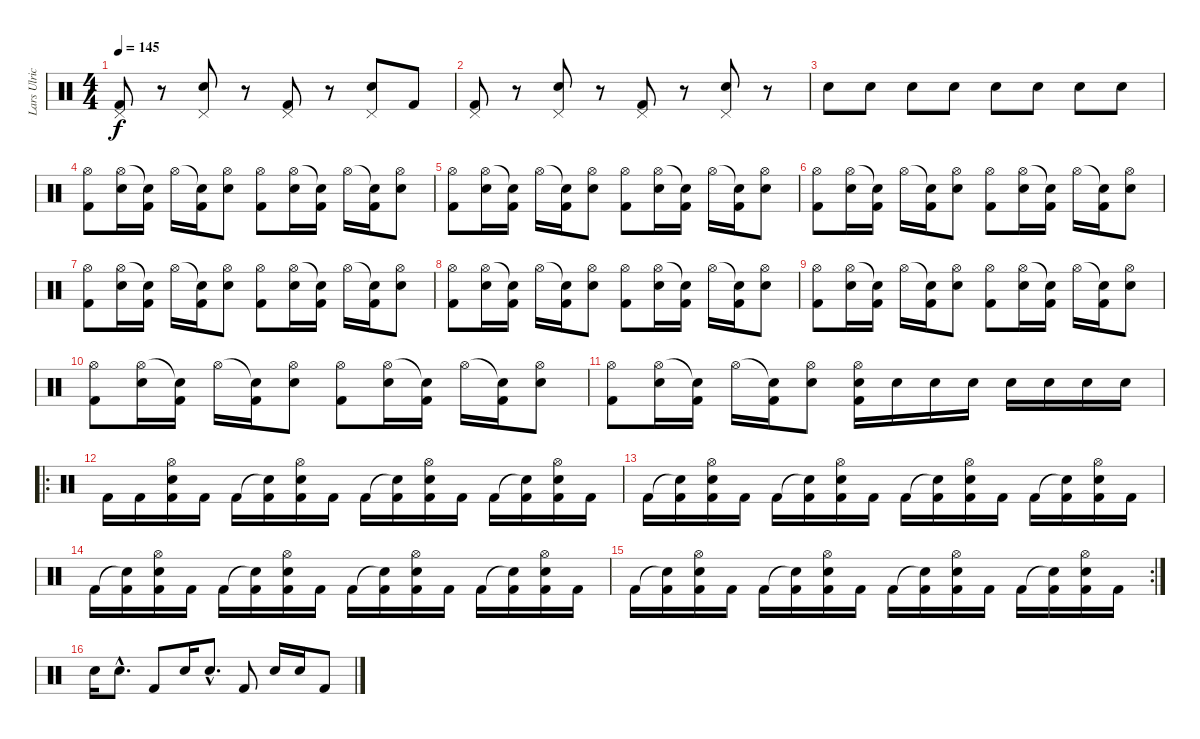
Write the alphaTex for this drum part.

\track ("Lars Ulrich" "Lars Ulric") {instrument percussion}
\staff {score}
\articulation defaults
\ts (4 4)
\tempo 145
\clef neutral
\ks c
("Pedal Hi-Hat (hit)" "Kick (hit) 2").8{dy f} r.8 ("Pedal Hi-Hat (hit)" "Electric Snare (hit)").8 r.8 ("Pedal Hi-Hat (hit)" "Kick (hit) 2").8 r.8 ("Pedal Hi-Hat (hit)" "Electric Snare (hit)").8 "Kick (hit) 2".8 |
("Pedal Hi-Hat (hit)" "Kick (hit) 2").8 r.8 ("Pedal Hi-Hat (hit)" "Electric Snare (hit)").8 r.8 ("Pedal Hi-Hat (hit)" "Kick (hit) 2").8 r.8 ("Pedal Hi-Hat (hit)" "Electric Snare (hit)").8 r.8 |
"Electric Snare (hit)".8 "Electric Snare (hit)".8 "Electric Snare (hit)".8 "Electric Snare (hit)".8 "Electric Snare (hit)".8 "Electric Snare (hit)".8 "Electric Snare (hit)".8 "Electric Snare (hit)".8 |
("Hi-Hat (open)" "Kick (hit) 2").8 ("Hi-Hat (open)" "Electric Snare (hit)").16 ("Snare (hit)"{t} "Kick (hit) 2").16 "Hi-Hat (open)".16 ("Snare (hit)"{t} "Kick (hit) 2").16 ("Hi-Hat (open)" "Electric Snare (hit)").8 ("Hi-Hat (open)" "Kick (hit) 2").8 ("Hi-Hat (open)" "Electric Snare (hit)").16 ("Snare (hit)"{t} "Kick (hit) 2").16 "Hi-Hat (open)".16 ("Snare (hit)"{t} "Kick (hit) 2").16 ("Hi-Hat (open)" "Electric Snare (hit)").8 |
("Hi-Hat (open)" "Kick (hit) 2").8 ("Hi-Hat (open)" "Electric Snare (hit)").16 ("Snare (hit)"{t} "Kick (hit) 2").16 "Hi-Hat (open)".16 ("Snare (hit)"{t} "Kick (hit) 2").16 ("Hi-Hat (open)" "Electric Snare (hit)").8 ("Hi-Hat (open)" "Kick (hit) 2").8 ("Hi-Hat (open)" "Electric Snare (hit)").16 ("Snare (hit)"{t} "Kick (hit) 2").16 "Hi-Hat (open)".16 ("Snare (hit)"{t} "Kick (hit) 2").16 ("Hi-Hat (open)" "Electric Snare (hit)").8 |
("Hi-Hat (open)" "Kick (hit) 2").8 ("Hi-Hat (open)" "Electric Snare (hit)").16 ("Snare (hit)"{t} "Kick (hit) 2").16 "Hi-Hat (open)".16 ("Snare (hit)"{t} "Kick (hit) 2").16 ("Hi-Hat (open)" "Electric Snare (hit)").8 ("Hi-Hat (open)" "Kick (hit) 2").8 ("Hi-Hat (open)" "Electric Snare (hit)").16 ("Snare (hit)"{t} "Kick (hit) 2").16 "Hi-Hat (open)".16 ("Snare (hit)"{t} "Kick (hit) 2").16 ("Hi-Hat (open)" "Electric Snare (hit)").8 |
("Hi-Hat (open)" "Kick (hit) 2").8 ("Hi-Hat (open)" "Electric Snare (hit)").16 ("Snare (hit)"{t} "Kick (hit) 2").16 "Hi-Hat (open)".16 ("Snare (hit)"{t} "Kick (hit) 2").16 ("Hi-Hat (open)" "Electric Snare (hit)").8 ("Hi-Hat (open)" "Kick (hit) 2").8 ("Hi-Hat (open)" "Electric Snare (hit)").16 ("Snare (hit)"{t} "Kick (hit) 2").16 "Hi-Hat (open)".16 ("Snare (hit)"{t} "Kick (hit) 2").16 ("Hi-Hat (open)" "Electric Snare (hit)").8 |
("Hi-Hat (open)" "Kick (hit) 2").8 ("Hi-Hat (open)" "Electric Snare (hit)").16 ("Snare (hit)"{t} "Kick (hit) 2").16 "Hi-Hat (open)".16 ("Snare (hit)"{t} "Kick (hit) 2").16 ("Hi-Hat (open)" "Electric Snare (hit)").8 ("Hi-Hat (open)" "Kick (hit) 2").8 ("Hi-Hat (open)" "Electric Snare (hit)").16 ("Snare (hit)"{t} "Kick (hit) 2").16 "Hi-Hat (open)".16 ("Snare (hit)"{t} "Kick (hit) 2").16 ("Hi-Hat (open)" "Electric Snare (hit)").8 |
("Hi-Hat (open)" "Kick (hit) 2").8 ("Hi-Hat (open)" "Electric Snare (hit)").16 ("Snare (hit)"{t} "Kick (hit) 2").16 "Hi-Hat (open)".16 ("Snare (hit)"{t} "Kick (hit) 2").16 ("Hi-Hat (open)" "Electric Snare (hit)").8 ("Hi-Hat (open)" "Kick (hit) 2").8 ("Hi-Hat (open)" "Electric Snare (hit)").16 ("Snare (hit)"{t} "Kick (hit) 2").16 "Hi-Hat (open)".16 ("Snare (hit)"{t} "Kick (hit) 2").16 ("Hi-Hat (open)" "Electric Snare (hit)").8 |
("Hi-Hat (open)" "Kick (hit) 2").8 ("Hi-Hat (open)" "Electric Snare (hit)").16 ("Snare (hit)"{t} "Kick (hit) 2").16 "Hi-Hat (open)".16 ("Snare (hit)"{t} "Kick (hit) 2").16 ("Hi-Hat (open)" "Electric Snare (hit)").8 ("Hi-Hat (open)" "Kick (hit) 2").8 ("Hi-Hat (open)" "Electric Snare (hit)").16 ("Snare (hit)"{t} "Kick (hit) 2").16 "Hi-Hat (open)".16 ("Snare (hit)"{t} "Kick (hit) 2").16 ("Hi-Hat (open)" "Electric Snare (hit)").8 |
("Hi-Hat (open)" "Kick (hit) 2").8 ("Hi-Hat (open)" "Electric Snare (hit)").16 ("Snare (hit)"{t} "Kick (hit) 2").16 "Hi-Hat (open)".16 ("Snare (hit)"{t} "Kick (hit) 2").16 ("Hi-Hat (open)" "Electric Snare (hit)").8 ("Hi-Hat (open)" "Electric Snare (hit)" "Kick (hit) 2").16 "Electric Snare (hit)".16 "Electric Snare (hit)".16 "Electric Snare (hit)".16 "Electric Snare (hit)".16 "Electric Snare (hit)".16 "Electric Snare (hit)".16 "Electric Snare (hit)".16 |
\ro "Kick (hit) 2".16 "Kick (hit) 2".16
("Hi-Hat (open)" "Electric Snare (hit)" "Kick (hit) 2").16 "Kick (hit) 2".16 "Kick (hit) 2".16 ("Snare (hit)"{t} "Kick (hit) 2").16 ("Hi-Hat (open)" "Electric Snare (hit)" "Kick (hit) 2").16 "Kick (hit) 2".16 "Kick (hit) 2".16 ("Snare (hit)"{t} "Kick (hit) 2").16 ("Hi-Hat (open)" "Electric Snare (hit)" "Kick (hit) 2").16 "Kick (hit) 2".16 "Kick (hit) 2".16 ("Snare (hit)"{t} "Kick (hit) 2").16 ("Hi-Hat (open)" "Electric Snare (hit)" "Kick (hit) 2").16 "Kick (hit) 2".16 |
"Kick (hit) 2".16 ("Snare (hit)"{t} "Kick (hit) 2").16 ("Hi-Hat (open)" "Electric Snare (hit)" "Kick (hit) 2").16 "Kick (hit) 2".16 "Kick (hit) 2".16 ("Snare (hit)"{t} "Kick (hit) 2").16 ("Hi-Hat (open)" "Electric Snare (hit)" "Kick (hit) 2").16 "Kick (hit) 2".16 "Kick (hit) 2".16 ("Snare (hit)"{t} "Kick (hit) 2").16 ("Hi-Hat (open)" "Electric Snare (hit)" "Kick (hit) 2").16 "Kick (hit) 2".16 "Kick (hit) 2".16 ("Snare (hit)"{t} "Kick (hit) 2").16 ("Hi-Hat (open)" "Electric Snare (hit)" "Kick (hit) 2").16 "Kick (hit) 2".16 |
"Kick (hit) 2".16 ("Snare (hit)"{t} "Kick (hit) 2").16 ("Hi-Hat (open)" "Electric Snare (hit)" "Kick (hit) 2").16 "Kick (hit) 2".16 "Kick (hit) 2".16 ("Snare (hit)"{t} "Kick (hit) 2").16 ("Hi-Hat (open)" "Electric Snare (hit)" "Kick (hit) 2").16 "Kick (hit) 2".16 "Kick (hit) 2".16 ("Snare (hit)"{t} "Kick (hit) 2").16 ("Hi-Hat (open)" "Electric Snare (hit)" "Kick (hit) 2").16 "Kick (hit) 2".16 "Kick (hit) 2".16 ("Snare (hit)"{t} "Kick (hit) 2").16 ("Hi-Hat (open)" "Electric Snare (hit)" "Kick (hit) 2").16 "Kick (hit) 2".16 |
\rc 2 "Kick (hit) 2".16
("Snare (hit)"{t} "Kick (hit) 2").16 ("Hi-Hat (open)" "Electric Snare (hit)" "Kick (hit) 2").16 "Kick (hit) 2".16 "Kick (hit) 2".16 ("Snare (hit)"{t} "Kick (hit) 2").16 ("Hi-Hat (open)" "Electric Snare (hit)" "Kick (hit) 2").16 "Kick (hit) 2".16 "Kick (hit) 2".16 ("Snare (hit)"{t} "Kick (hit) 2").16 ("Hi-Hat (open)" "Electric Snare (hit)" "Kick (hit) 2").16 "Kick (hit) 2".16 "Kick (hit) 2".16 ("Snare (hit)"{t} "Kick (hit) 2").16 ("Hi-Hat (open)" "Electric Snare (hit)" "Kick (hit) 2").16 "Kick (hit) 2".16 |
"Electric Snare (hit)".16 "Electric Snare (hit)"{hac}.8{d} "Kick (hit) 2".8 "Electric Snare (hit)".16 "Electric Snare (hit)"{hac}.8{d} "Kick (hit) 2".8 "Electric Snare (hit)".16 "Electric Snare (hit)".16 "Kick (hit) 2".8
